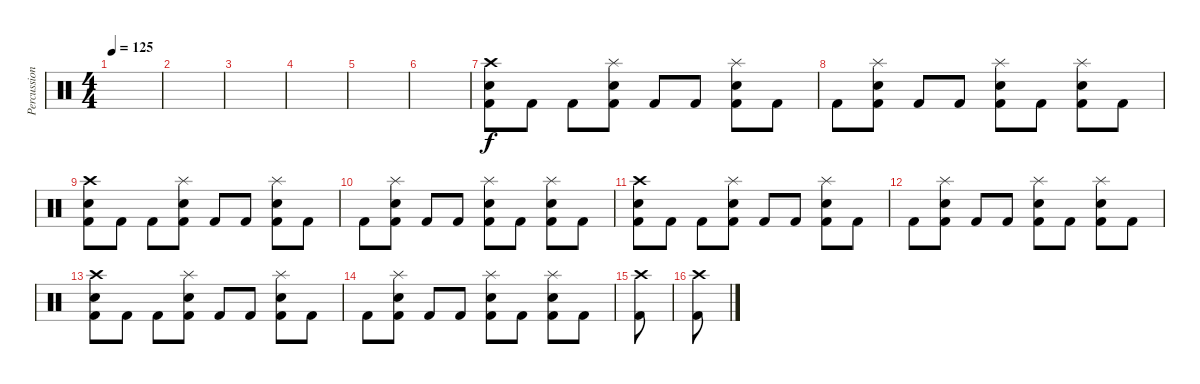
\track ("Percussion" "Percussion") {instrument percussion}
\staff {score}
\articulation defaults
\ts (4 4)
\tempo 125
\clef neutral
\ks c
|
|
|
|
|
|
("Kick (hit) 2" "Snare (hit) 2" "Crash high (hit)").8 "Kick (hit) 2".8 "Kick (hit) 2".8 ("Kick (hit) 2" "Snare (hit) 2" "Splash (hit)").8 "Kick (hit) 2".8 "Kick (hit) 2".8 ("Kick (hit) 2" "Snare (hit) 2" "Splash (hit)").8 "Kick (hit) 2".8 |
"Kick (hit) 2".8 ("Kick (hit) 2" "Snare (hit) 2" "Splash (hit)").8 "Kick (hit) 2".8 "Kick (hit) 2".8 ("Kick (hit) 2" "Snare (hit) 2" "Splash (hit)").8 "Kick (hit) 2".8 ("Kick (hit) 2" "Snare (hit) 2" "Splash (hit)").8 "Kick (hit) 2".8 |
("Kick (hit) 2" "Snare (hit) 2" "Crash high (hit)").8 "Kick (hit) 2".8 "Kick (hit) 2".8 ("Kick (hit) 2" "Snare (hit) 2" "Splash (hit)").8 "Kick (hit) 2".8 "Kick (hit) 2".8 ("Kick (hit) 2" "Snare (hit) 2" "Splash (hit)").8 "Kick (hit) 2".8 |
"Kick (hit) 2".8 ("Kick (hit) 2" "Snare (hit) 2" "Splash (hit)").8 "Kick (hit) 2".8 "Kick (hit) 2".8 ("Kick (hit) 2" "Snare (hit) 2" "Splash (hit)").8 "Kick (hit) 2".8 ("Kick (hit) 2" "Snare (hit) 2" "Splash (hit)").8 "Kick (hit) 2".8 |
("Kick (hit) 2" "Snare (hit) 2" "Crash high (hit)").8 "Kick (hit) 2".8 "Kick (hit) 2".8 ("Kick (hit) 2" "Snare (hit) 2" "Splash (hit)").8 "Kick (hit) 2".8 "Kick (hit) 2".8 ("Kick (hit) 2" "Snare (hit) 2" "Splash (hit)").8 "Kick (hit) 2".8 |
"Kick (hit) 2".8 ("Kick (hit) 2" "Snare (hit) 2" "Splash (hit)").8 "Kick (hit) 2".8 "Kick (hit) 2".8 ("Kick (hit) 2" "Snare (hit) 2" "Splash (hit)").8 "Kick (hit) 2".8 ("Kick (hit) 2" "Snare (hit) 2" "Splash (hit)").8 "Kick (hit) 2".8 |
("Kick (hit) 2" "Snare (hit) 2" "Crash high (hit)").8 "Kick (hit) 2".8 "Kick (hit) 2".8 ("Kick (hit) 2" "Snare (hit) 2" "Splash (hit)").8 "Kick (hit) 2".8 "Kick (hit) 2".8 ("Kick (hit) 2" "Snare (hit) 2" "Splash (hit)").8 "Kick (hit) 2".8 |
"Kick (hit) 2".8 ("Kick (hit) 2" "Snare (hit) 2" "Splash (hit)").8 "Kick (hit) 2".8 "Kick (hit) 2".8 ("Kick (hit) 2" "Snare (hit) 2" "Splash (hit)").8 "Kick (hit) 2".8 ("Kick (hit) 2" "Snare (hit) 2" "Splash (hit)").8 "Kick (hit) 2".8 |
("Kick (hit) 2" "Crash high (hit)").8 |
("Kick (hit) 2" "Crash high (hit)").8
